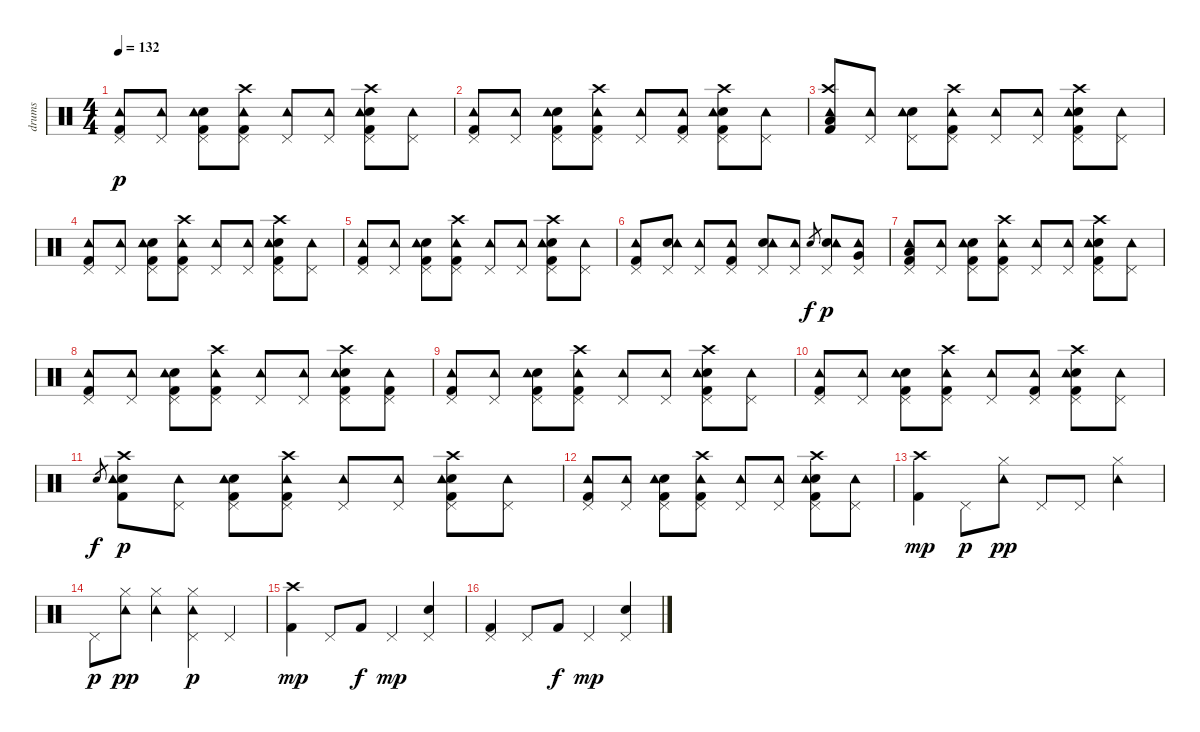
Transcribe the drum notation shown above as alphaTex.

\track ("drums" "drums") {instrument percussion}
\staff {score}
\articulation defaults
\ts (4 4)
\tempo 132
\clef neutral
\ks c
("Kick (hit) 2" "Pedal Hi-Hat (hit)" "Tambourine (hit)").8{dy p} ("Pedal Hi-Hat (hit)" "Tambourine (hit)").8 ("Electric Snare (hit)" "Kick (hit) 2" "Pedal Hi-Hat (hit)" "Tambourine (hit)").8 ("Crash high (hit)" "Kick (hit) 2" "Pedal Hi-Hat (hit)" "Tambourine (hit)").8 ("Pedal Hi-Hat (hit)" "Tambourine (hit)").8 ("Pedal Hi-Hat (hit)" "Tambourine (hit)").8 ("Electric Snare (hit)" "Crash high (hit)" "Kick (hit) 2" "Pedal Hi-Hat (hit)" "Tambourine (hit)").8 ("Pedal Hi-Hat (hit)" "Tambourine (hit)").8 |
("Kick (hit) 2" "Pedal Hi-Hat (hit)" "Tambourine (hit)").8 ("Pedal Hi-Hat (hit)" "Tambourine (hit)").8 ("Electric Snare (hit)" "Kick (hit) 2" "Pedal Hi-Hat (hit)" "Tambourine (hit)").8 ("Crash high (hit)" "Kick (hit) 2" "Pedal Hi-Hat (hit)" "Tambourine (hit)").8 ("Pedal Hi-Hat (hit)" "Tambourine (hit)").8 ("Kick (hit) 2" "Pedal Hi-Hat (hit)" "Tambourine (hit)").8 ("Electric Snare (hit)" "Crash high (hit)" "Kick (hit) 2" "Pedal Hi-Hat (hit)" "Tambourine (hit)").8 ("Pedal Hi-Hat (hit)" "Tambourine (hit)").8 |
("Low Floor Tom (hit)" "Kick (hit) 2" "Crash high (hit)" "Tambourine (hit)").8 ("Pedal Hi-Hat (hit)" "Tambourine (hit)").8 ("Electric Snare (hit)" "Pedal Hi-Hat (hit)" "Tambourine (hit)").8 ("Crash high (hit)" "Kick (hit) 2" "Pedal Hi-Hat (hit)" "Tambourine (hit)").8 ("Pedal Hi-Hat (hit)" "Tambourine (hit)").8 ("Pedal Hi-Hat (hit)" "Tambourine (hit)").8 ("Electric Snare (hit)" "Crash high (hit)" "Kick (hit) 2" "Pedal Hi-Hat (hit)" "Tambourine (hit)").8 ("Pedal Hi-Hat (hit)" "Tambourine (hit)").8 |
("Kick (hit) 2" "Pedal Hi-Hat (hit)" "Tambourine (hit)").8 ("Pedal Hi-Hat (hit)" "Tambourine (hit)").8 ("Electric Snare (hit)" "Kick (hit) 2" "Pedal Hi-Hat (hit)" "Tambourine (hit)").8 ("Crash high (hit)" "Kick (hit) 2" "Pedal Hi-Hat (hit)" "Tambourine (hit)").8 ("Pedal Hi-Hat (hit)" "Tambourine (hit)").8 ("Pedal Hi-Hat (hit)" "Tambourine (hit)").8 ("Electric Snare (hit)" "Crash high (hit)" "Kick (hit) 2" "Pedal Hi-Hat (hit)" "Tambourine (hit)").8 ("Pedal Hi-Hat (hit)" "Tambourine (hit)").8 |
("Kick (hit) 2" "Pedal Hi-Hat (hit)" "Tambourine (hit)").8 ("Pedal Hi-Hat (hit)" "Tambourine (hit)").8 ("Electric Snare (hit)" "Kick (hit) 2" "Pedal Hi-Hat (hit)" "Tambourine (hit)").8 ("Crash high (hit)" "Kick (hit) 2" "Pedal Hi-Hat (hit)" "Tambourine (hit)").8 ("Pedal Hi-Hat (hit)" "Tambourine (hit)").8 ("Pedal Hi-Hat (hit)" "Tambourine (hit)").8 ("Electric Snare (hit)" "Crash high (hit)" "Kick (hit) 2" "Pedal Hi-Hat (hit)" "Tambourine (hit)").8 ("Pedal Hi-Hat (hit)" "Tambourine (hit)").8 |
("Kick (hit) 2" "Pedal Hi-Hat (hit)" "Tambourine (hit)").8 ("Electric Snare (hit)" "Pedal Hi-Hat (hit)" "Tambourine (hit)").8 ("Pedal Hi-Hat (hit)" "Tambourine (hit)").8 ("Kick (hit) 2" "Pedal Hi-Hat (hit)" "Tambourine (hit)").8 ("Electric Snare (hit)" "Pedal Hi-Hat (hit)" "Tambourine (hit)").8 ("Pedal Hi-Hat (hit)" "Tambourine (hit)").8 "Electric Snare (hit)".8{gr dy f} ("Electric Snare (hit)" "Pedal Hi-Hat (hit)" "Tambourine (hit)").8{dy p} ("Very Low Tom (hit)" "Pedal Hi-Hat (hit)" "Tambourine (hit)").8 |
("Low Floor Tom (hit)" "Kick (hit) 2" "Pedal Hi-Hat (hit)" "Tambourine (hit)").8 ("Pedal Hi-Hat (hit)" "Tambourine (hit)").8 ("Electric Snare (hit)" "Kick (hit) 2" "Pedal Hi-Hat (hit)" "Tambourine (hit)").8 ("Crash high (hit)" "Kick (hit) 2" "Pedal Hi-Hat (hit)" "Tambourine (hit)").8 ("Pedal Hi-Hat (hit)" "Tambourine (hit)").8 ("Pedal Hi-Hat (hit)" "Tambourine (hit)").8 ("Electric Snare (hit)" "Crash high (hit)" "Kick (hit) 2" "Pedal Hi-Hat (hit)" "Tambourine (hit)").8 ("Pedal Hi-Hat (hit)" "Tambourine (hit)").8 |
("Kick (hit) 2" "Pedal Hi-Hat (hit)" "Tambourine (hit)").8 ("Pedal Hi-Hat (hit)" "Tambourine (hit)").8 ("Electric Snare (hit)" "Kick (hit) 2" "Pedal Hi-Hat (hit)" "Tambourine (hit)").8 ("Crash high (hit)" "Kick (hit) 2" "Pedal Hi-Hat (hit)" "Tambourine (hit)").8 ("Pedal Hi-Hat (hit)" "Tambourine (hit)").8 ("Pedal Hi-Hat (hit)" "Tambourine (hit)").8 ("Electric Snare (hit)" "Crash high (hit)" "Kick (hit) 2" "Pedal Hi-Hat (hit)" "Tambourine (hit)").8 ("Kick (hit) 2" "Pedal Hi-Hat (hit)" "Tambourine (hit)").8 |
("Kick (hit) 2" "Pedal Hi-Hat (hit)" "Tambourine (hit)").8 ("Pedal Hi-Hat (hit)" "Tambourine (hit)").8 ("Electric Snare (hit)" "Kick (hit) 2" "Pedal Hi-Hat (hit)" "Tambourine (hit)").8 ("Crash high (hit)" "Kick (hit) 2" "Pedal Hi-Hat (hit)" "Tambourine (hit)").8 ("Pedal Hi-Hat (hit)" "Tambourine (hit)").8 ("Pedal Hi-Hat (hit)" "Tambourine (hit)").8 ("Electric Snare (hit)" "Crash high (hit)" "Kick (hit) 2" "Pedal Hi-Hat (hit)" "Tambourine (hit)").8 ("Pedal Hi-Hat (hit)" "Tambourine (hit)").8 |
("Kick (hit) 2" "Pedal Hi-Hat (hit)" "Tambourine (hit)").8 ("Pedal Hi-Hat (hit)" "Tambourine (hit)").8 ("Electric Snare (hit)" "Kick (hit) 2" "Pedal Hi-Hat (hit)" "Tambourine (hit)").8 ("Crash high (hit)" "Kick (hit) 2" "Pedal Hi-Hat (hit)" "Tambourine (hit)").8 ("Pedal Hi-Hat (hit)" "Tambourine (hit)").8 ("Kick (hit) 2" "Pedal Hi-Hat (hit)" "Tambourine (hit)").8 ("Electric Snare (hit)" "Crash high (hit)" "Kick (hit) 2" "Pedal Hi-Hat (hit)" "Tambourine (hit)").8 ("Pedal Hi-Hat (hit)" "Tambourine (hit)").8 |
"Electric Snare (hit)".8{gr dy f} ("Electric Snare (hit)" "Kick (hit) 2" "Crash high (hit)" "Tambourine (hit)").8{dy p} ("Pedal Hi-Hat (hit)" "Tambourine (hit)").8 ("Electric Snare (hit)" "Kick (hit) 2" "Pedal Hi-Hat (hit)" "Tambourine (hit)").8 ("Crash high (hit)" "Kick (hit) 2" "Pedal Hi-Hat (hit)" "Tambourine (hit)").8 ("Pedal Hi-Hat (hit)" "Tambourine (hit)").8 ("Pedal Hi-Hat (hit)" "Tambourine (hit)").8 ("Electric Snare (hit)" "Crash high (hit)" "Kick (hit) 2" "Pedal Hi-Hat (hit)" "Tambourine (hit)").8 ("Pedal Hi-Hat (hit)" "Tambourine (hit)").8 |
("Kick (hit) 2" "Pedal Hi-Hat (hit)" "Tambourine (hit)").8 ("Pedal Hi-Hat (hit)" "Tambourine (hit)").8 ("Electric Snare (hit)" "Kick (hit) 2" "Pedal Hi-Hat (hit)" "Tambourine (hit)").8 ("Crash high (hit)" "Kick (hit) 2" "Pedal Hi-Hat (hit)" "Tambourine (hit)").8 ("Pedal Hi-Hat (hit)" "Tambourine (hit)").8 ("Pedal Hi-Hat (hit)" "Tambourine (hit)").8 ("Electric Snare (hit)" "Crash high (hit)" "Kick (hit) 2" "Pedal Hi-Hat (hit)" "Tambourine (hit)").8 ("Pedal Hi-Hat (hit)" "Tambourine (hit)").8 |
("Kick (hit) 2" "Crash high (hit)").4{dy mp} "Pedal Hi-Hat (hit)".8{dy p} ("Hi-Hat (closed)" "Tambourine (hit)").8{dy pp} "Pedal Hi-Hat (hit)".8 "Pedal Hi-Hat (hit)".8 ("Hi-Hat (closed)" "Tambourine (hit)").4 |
"Pedal Hi-Hat (hit)".8{dy p} ("Hi-Hat (closed)" "Tambourine (hit)").8{dy pp} ("Hi-Hat (closed)" "Tambourine (hit)").4 ("Hi-Hat (closed)" "Pedal Hi-Hat (hit)" "Tambourine (hit)").4{dy p} "Pedal Hi-Hat (hit)".4 |
("Kick (hit) 2" "Crash high (hit)").4{dy mp} "Pedal Hi-Hat (hit)".8 "Kick (hit) 2".8{dy f} "Pedal Hi-Hat (hit)".4{dy mp} ("Electric Snare (hit)" "Pedal Hi-Hat (hit)").4 |
("Kick (hit) 2" "Pedal Hi-Hat (hit)").4 "Pedal Hi-Hat (hit)".8 "Kick (hit) 2".8{dy f} "Pedal Hi-Hat (hit)".4{dy mp} ("Electric Snare (hit)" "Pedal Hi-Hat (hit)").4
